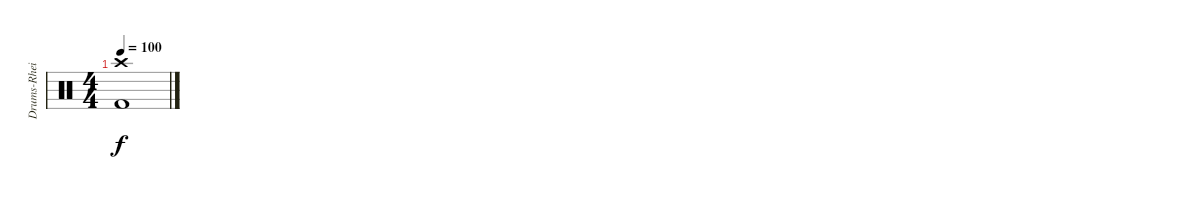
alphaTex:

\track ("Drums-Rhein" "Drums-Rhei") {instrument percussion}
\staff {score}
\articulation defaults
\ts (4 4)
\tempo 100
\clef neutral
\ks c
("Crash high (hit)" "Kick (hit) 2").1{dy f}
